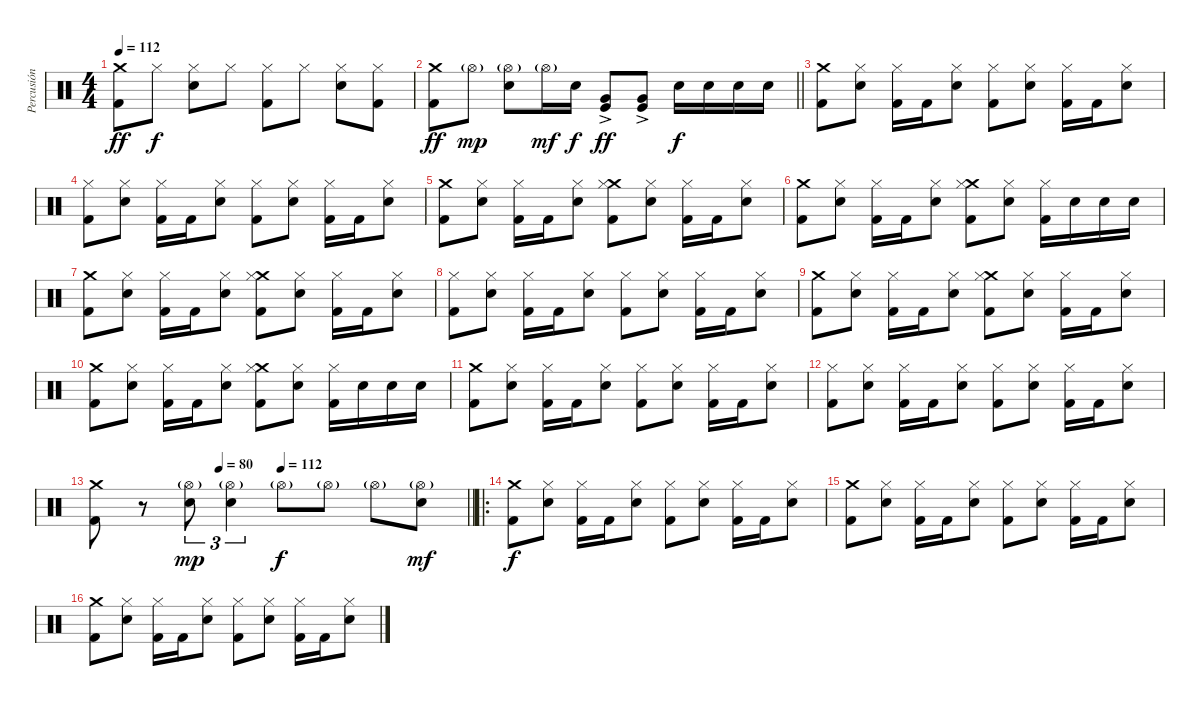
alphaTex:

\track ("Percusión" "Percusión") {instrument percussion}
\staff {score}
\articulation defaults
\ts (4 4)
\tempo 112
\clef neutral
\ks c
("Crash medium (hit)" "Kick (hit) 2").8{dy ff} "Hi-Hat (closed)".8{dy f} ("Hi-Hat (closed)" "Electric Snare (hit)").8 "Hi-Hat (closed)".8 ("Hi-Hat (closed)" "Kick (hit) 2").8 "Hi-Hat (closed)".8 ("Hi-Hat (closed)" "Electric Snare (hit)").8 ("Hi-Hat (closed)" "Kick (hit) 2").8 |
\barLineRight lightlight
("Crash medium (hit)" "Kick (hit) 2").8{dy ff} "Hi-Hat (open)"{g}.8{dy mp} ("Hi-Hat (open)"{g} "Electric Snare (hit)").8 "Hi-Hat (open)"{g}.16{dy mf} "Electric Snare (hit)".16{dy f} ("Very Low Tom (hit)"{ac} "Kick (hit)"{ac}).8{dy ff} ("Very Low Tom (hit)"{ac} "Kick (hit)"{ac}).8 "Electric Snare (hit)".16{dy f} "Electric Snare (hit)".16 "Electric Snare (hit)".16 "Electric Snare (hit)".16 |
\section ("" "")
("Crash medium (hit)" "Kick (hit) 2").8 ("Hi-Hat (closed)" "Electric Snare (hit)").8 ("Hi-Hat (closed)" "Kick (hit) 2").16 "Kick (hit) 2".16 ("Hi-Hat (closed)" "Electric Snare (hit)").8 ("Hi-Hat (closed)" "Kick (hit) 2").8 ("Hi-Hat (closed)" "Electric Snare (hit)").8 ("Hi-Hat (closed)" "Kick (hit) 2").16 "Kick (hit) 2".16 ("Hi-Hat (closed)" "Electric Snare (hit)").8 |
("Hi-Hat (closed)" "Kick (hit) 2").8 ("Hi-Hat (closed)" "Electric Snare (hit)").8 ("Hi-Hat (closed)" "Kick (hit) 2").16 "Kick (hit) 2".16 ("Hi-Hat (closed)" "Electric Snare (hit)").8 ("Hi-Hat (closed)" "Kick (hit) 2").8 ("Hi-Hat (closed)" "Electric Snare (hit)").8 ("Hi-Hat (closed)" "Kick (hit) 2").16 "Kick (hit) 2".16 ("Hi-Hat (closed)" "Electric Snare (hit)").8 |
("Crash medium (hit)" "Kick (hit) 2").8 ("Hi-Hat (closed)" "Electric Snare (hit)").8 ("Hi-Hat (closed)" "Kick (hit) 2").16 "Kick (hit) 2".16 ("Hi-Hat (closed)" "Electric Snare (hit)").8 ("Crash medium (hit)" "Hi-Hat (closed)" "Kick (hit) 2").8 ("Hi-Hat (closed)" "Electric Snare (hit)").8 ("Hi-Hat (closed)" "Kick (hit) 2").16 "Kick (hit) 2".16 ("Hi-Hat (closed)" "Electric Snare (hit)").8 |
("Crash medium (hit)" "Kick (hit) 2").8 ("Hi-Hat (closed)" "Electric Snare (hit)").8 ("Hi-Hat (closed)" "Kick (hit) 2").16 "Kick (hit) 2".16 ("Hi-Hat (closed)" "Electric Snare (hit)").8 ("Crash medium (hit)" "Hi-Hat (closed)" "Kick (hit) 2").8 ("Hi-Hat (closed)" "Electric Snare (hit)").8 ("Hi-Hat (closed)" "Kick (hit) 2").16 "Electric Snare (hit)".16 "Electric Snare (hit)".16 "Electric Snare (hit)".16 |
("Crash medium (hit)" "Kick (hit) 2").8 ("Hi-Hat (closed)" "Electric Snare (hit)").8 ("Hi-Hat (closed)" "Kick (hit) 2").16 "Kick (hit) 2".16 ("Hi-Hat (closed)" "Electric Snare (hit)").8 ("Crash medium (hit)" "Hi-Hat (closed)" "Kick (hit) 2").8 ("Hi-Hat (closed)" "Electric Snare (hit)").8 ("Hi-Hat (closed)" "Kick (hit) 2").16 "Kick (hit) 2".16 ("Hi-Hat (closed)" "Electric Snare (hit)").8 |
("Hi-Hat (closed)" "Kick (hit) 2").8 ("Hi-Hat (closed)" "Electric Snare (hit)").8 ("Hi-Hat (closed)" "Kick (hit) 2").16 "Kick (hit) 2".16 ("Hi-Hat (closed)" "Electric Snare (hit)").8 ("Hi-Hat (closed)" "Kick (hit) 2").8 ("Hi-Hat (closed)" "Electric Snare (hit)").8 ("Hi-Hat (closed)" "Kick (hit) 2").16 "Kick (hit) 2".16 ("Hi-Hat (closed)" "Electric Snare (hit)").8 |
("Crash medium (hit)" "Kick (hit) 2").8 ("Hi-Hat (closed)" "Electric Snare (hit)").8 ("Hi-Hat (closed)" "Kick (hit) 2").16 "Kick (hit) 2".16 ("Hi-Hat (closed)" "Electric Snare (hit)").8 ("Crash medium (hit)" "Hi-Hat (closed)" "Kick (hit) 2").8 ("Hi-Hat (closed)" "Electric Snare (hit)").8 ("Hi-Hat (closed)" "Kick (hit) 2").16 "Kick (hit) 2".16 ("Hi-Hat (closed)" "Electric Snare (hit)").8 |
("Crash medium (hit)" "Kick (hit) 2").8 ("Hi-Hat (closed)" "Electric Snare (hit)").8 ("Hi-Hat (closed)" "Kick (hit) 2").16 "Kick (hit) 2".16 ("Hi-Hat (closed)" "Electric Snare (hit)").8 ("Crash medium (hit)" "Hi-Hat (closed)" "Kick (hit) 2").8 ("Hi-Hat (closed)" "Electric Snare (hit)").8 ("Hi-Hat (closed)" "Kick (hit) 2").16 "Electric Snare (hit)".16 "Electric Snare (hit)".16 "Electric Snare (hit)".16 |
("Crash medium (hit)" "Kick (hit) 2").8 ("Hi-Hat (closed)" "Electric Snare (hit)").8 ("Hi-Hat (closed)" "Kick (hit) 2").16 "Kick (hit) 2".16 ("Hi-Hat (closed)" "Electric Snare (hit)").8 ("Hi-Hat (closed)" "Kick (hit) 2").8 ("Hi-Hat (closed)" "Electric Snare (hit)").8 ("Hi-Hat (closed)" "Kick (hit) 2").16 "Kick (hit) 2".16 ("Hi-Hat (closed)" "Electric Snare (hit)").8 |
("Hi-Hat (closed)" "Kick (hit) 2").8 ("Hi-Hat (closed)" "Electric Snare (hit)").8 ("Hi-Hat (closed)" "Kick (hit) 2").16 "Kick (hit) 2".16 ("Hi-Hat (closed)" "Electric Snare (hit)").8 ("Hi-Hat (closed)" "Kick (hit) 2").8 ("Hi-Hat (closed)" "Electric Snare (hit)").8 ("Hi-Hat (closed)" "Kick (hit) 2").16 "Kick (hit) 2".16 ("Hi-Hat (closed)" "Electric Snare (hit)").8 |
\tempo (80 0.3333333333333333)
\tempo (112 0.5)
\barLineRight lightlight
("Crash medium (hit)" "Kick (hit) 2").8 r.8 ("Hi-Hat (open)"{g} "Electric Snare (hit)").8{tu (3 2) dy mp} ("Hi-Hat (open)"{g} "Electric Snare (hit)").4{tu (3 2)} "Hi-Hat (open)"{g}.8{dy f} "Hi-Hat (open)"{g}.8 "Hi-Hat (open)"{g}.8 ("Hi-Hat (open)"{g} "Electric Snare (hit)").8{dy mf} |
\ro
\section ("" "")
("Crash medium (hit)" "Kick (hit) 2").8{dy f} ("Hi-Hat (closed)" "Electric Snare (hit)").8 ("Hi-Hat (closed)" "Kick (hit) 2").16 "Kick (hit) 2".16 ("Hi-Hat (closed)" "Electric Snare (hit)").8 ("Hi-Hat (closed)" "Kick (hit) 2").8 ("Hi-Hat (closed)" "Electric Snare (hit)").8 ("Hi-Hat (closed)" "Kick (hit) 2").16 "Kick (hit) 2".16 ("Hi-Hat (closed)" "Electric Snare (hit)").8 |
("Crash medium (hit)" "Kick (hit) 2").8 ("Hi-Hat (closed)" "Electric Snare (hit)").8 ("Hi-Hat (closed)" "Kick (hit) 2").16 "Kick (hit) 2".16 ("Hi-Hat (closed)" "Electric Snare (hit)").8 ("Hi-Hat (closed)" "Kick (hit) 2").8 ("Hi-Hat (closed)" "Electric Snare (hit)").8 ("Hi-Hat (closed)" "Kick (hit) 2").16 "Kick (hit) 2".16 ("Hi-Hat (closed)" "Electric Snare (hit)").8 |
("Crash medium (hit)" "Kick (hit) 2").8 ("Hi-Hat (closed)" "Electric Snare (hit)").8 ("Hi-Hat (closed)" "Kick (hit) 2").16 "Kick (hit) 2".16 ("Hi-Hat (closed)" "Electric Snare (hit)").8 ("Hi-Hat (closed)" "Kick (hit) 2").8 ("Hi-Hat (closed)" "Electric Snare (hit)").8 ("Hi-Hat (closed)" "Kick (hit) 2").16 "Kick (hit) 2".16 ("Hi-Hat (closed)" "Electric Snare (hit)").8
